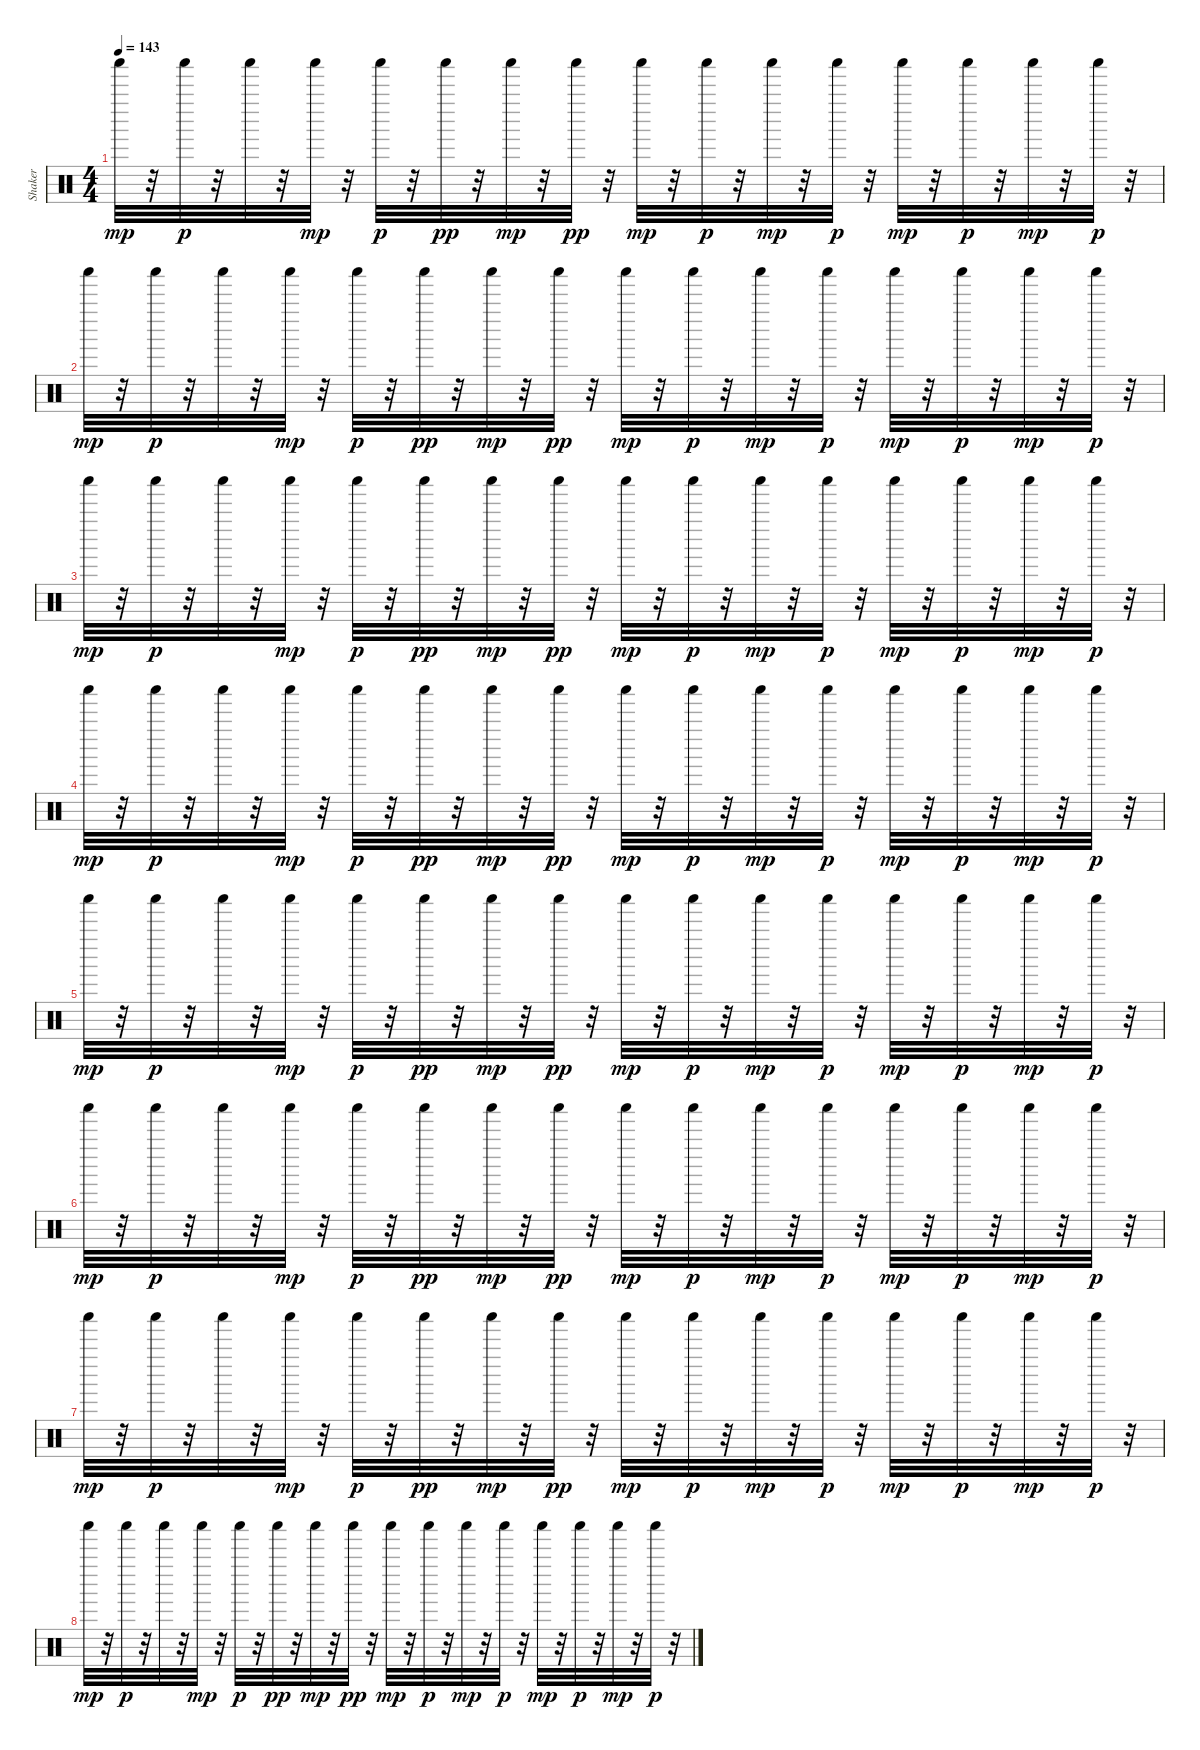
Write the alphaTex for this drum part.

\track ("Shaker   " "Shaker   ") {instrument percussion}
\staff {score}
\articulation defaults
\ts (4 4)
\tempo 143
\clef neutral
\ks c "Shaker (hit)".32{dy mp}
r.32 "Shaker (hit)".32{dy p} r.32 "Shaker (hit)".32 r.32 "Shaker (hit)".32{dy mp} r.32 "Shaker (hit)".32{dy p} r.32 "Shaker (hit)".32{dy pp} r.32 "Shaker (hit)".32{dy mp} r.32 "Shaker (hit)".32{dy pp} r.32 "Shaker (hit)".32{dy mp} r.32 "Shaker (hit)".32{dy p} r.32 "Shaker (hit)".32{dy mp} r.32 "Shaker (hit)".32{dy p} r.32 "Shaker (hit)".32{dy mp} r.32 "Shaker (hit)".32{dy p} r.32 "Shaker (hit)".32{dy mp} r.32 "Shaker (hit)".32{dy p} r.32 |
"Shaker (hit)".32{dy mp} r.32 "Shaker (hit)".32{dy p} r.32 "Shaker (hit)".32 r.32 "Shaker (hit)".32{dy mp} r.32 "Shaker (hit)".32{dy p} r.32 "Shaker (hit)".32{dy pp} r.32 "Shaker (hit)".32{dy mp} r.32 "Shaker (hit)".32{dy pp} r.32 "Shaker (hit)".32{dy mp} r.32 "Shaker (hit)".32{dy p} r.32 "Shaker (hit)".32{dy mp} r.32 "Shaker (hit)".32{dy p} r.32 "Shaker (hit)".32{dy mp} r.32 "Shaker (hit)".32{dy p} r.32 "Shaker (hit)".32{dy mp} r.32 "Shaker (hit)".32{dy p} r.32 |
"Shaker (hit)".32{dy mp} r.32 "Shaker (hit)".32{dy p} r.32 "Shaker (hit)".32 r.32 "Shaker (hit)".32{dy mp} r.32 "Shaker (hit)".32{dy p} r.32 "Shaker (hit)".32{dy pp} r.32 "Shaker (hit)".32{dy mp} r.32 "Shaker (hit)".32{dy pp} r.32 "Shaker (hit)".32{dy mp} r.32 "Shaker (hit)".32{dy p} r.32 "Shaker (hit)".32{dy mp} r.32 "Shaker (hit)".32{dy p} r.32 "Shaker (hit)".32{dy mp} r.32 "Shaker (hit)".32{dy p} r.32 "Shaker (hit)".32{dy mp} r.32 "Shaker (hit)".32{dy p} r.32 |
"Shaker (hit)".32{dy mp} r.32 "Shaker (hit)".32{dy p} r.32 "Shaker (hit)".32 r.32 "Shaker (hit)".32{dy mp} r.32 "Shaker (hit)".32{dy p} r.32 "Shaker (hit)".32{dy pp} r.32 "Shaker (hit)".32{dy mp} r.32 "Shaker (hit)".32{dy pp} r.32 "Shaker (hit)".32{dy mp} r.32 "Shaker (hit)".32{dy p} r.32 "Shaker (hit)".32{dy mp} r.32 "Shaker (hit)".32{dy p} r.32 "Shaker (hit)".32{dy mp} r.32 "Shaker (hit)".32{dy p} r.32 "Shaker (hit)".32{dy mp} r.32 "Shaker (hit)".32{dy p} r.32 |
"Shaker (hit)".32{dy mp} r.32 "Shaker (hit)".32{dy p} r.32 "Shaker (hit)".32 r.32 "Shaker (hit)".32{dy mp} r.32 "Shaker (hit)".32{dy p} r.32 "Shaker (hit)".32{dy pp} r.32 "Shaker (hit)".32{dy mp} r.32 "Shaker (hit)".32{dy pp} r.32 "Shaker (hit)".32{dy mp} r.32 "Shaker (hit)".32{dy p} r.32 "Shaker (hit)".32{dy mp} r.32 "Shaker (hit)".32{dy p} r.32 "Shaker (hit)".32{dy mp} r.32 "Shaker (hit)".32{dy p} r.32 "Shaker (hit)".32{dy mp} r.32 "Shaker (hit)".32{dy p} r.32 |
"Shaker (hit)".32{dy mp} r.32 "Shaker (hit)".32{dy p} r.32 "Shaker (hit)".32 r.32 "Shaker (hit)".32{dy mp} r.32 "Shaker (hit)".32{dy p} r.32 "Shaker (hit)".32{dy pp} r.32 "Shaker (hit)".32{dy mp} r.32 "Shaker (hit)".32{dy pp} r.32 "Shaker (hit)".32{dy mp} r.32 "Shaker (hit)".32{dy p} r.32 "Shaker (hit)".32{dy mp} r.32 "Shaker (hit)".32{dy p} r.32 "Shaker (hit)".32{dy mp} r.32 "Shaker (hit)".32{dy p} r.32 "Shaker (hit)".32{dy mp} r.32 "Shaker (hit)".32{dy p} r.32 |
"Shaker (hit)".32{dy mp} r.32 "Shaker (hit)".32{dy p} r.32 "Shaker (hit)".32 r.32 "Shaker (hit)".32{dy mp} r.32 "Shaker (hit)".32{dy p} r.32 "Shaker (hit)".32{dy pp} r.32 "Shaker (hit)".32{dy mp} r.32 "Shaker (hit)".32{dy pp} r.32 "Shaker (hit)".32{dy mp} r.32 "Shaker (hit)".32{dy p} r.32 "Shaker (hit)".32{dy mp} r.32 "Shaker (hit)".32{dy p} r.32 "Shaker (hit)".32{dy mp} r.32 "Shaker (hit)".32{dy p} r.32 "Shaker (hit)".32{dy mp} r.32 "Shaker (hit)".32{dy p} r.32 |
"Shaker (hit)".32{dy mp} r.32 "Shaker (hit)".32{dy p} r.32 "Shaker (hit)".32 r.32 "Shaker (hit)".32{dy mp} r.32 "Shaker (hit)".32{dy p} r.32 "Shaker (hit)".32{dy pp} r.32 "Shaker (hit)".32{dy mp} r.32 "Shaker (hit)".32{dy pp} r.32 "Shaker (hit)".32{dy mp} r.32 "Shaker (hit)".32{dy p} r.32 "Shaker (hit)".32{dy mp} r.32 "Shaker (hit)".32{dy p} r.32 "Shaker (hit)".32{dy mp} r.32 "Shaker (hit)".32{dy p} r.32 "Shaker (hit)".32{dy mp} r.32 "Shaker (hit)".32{dy p} r.32
